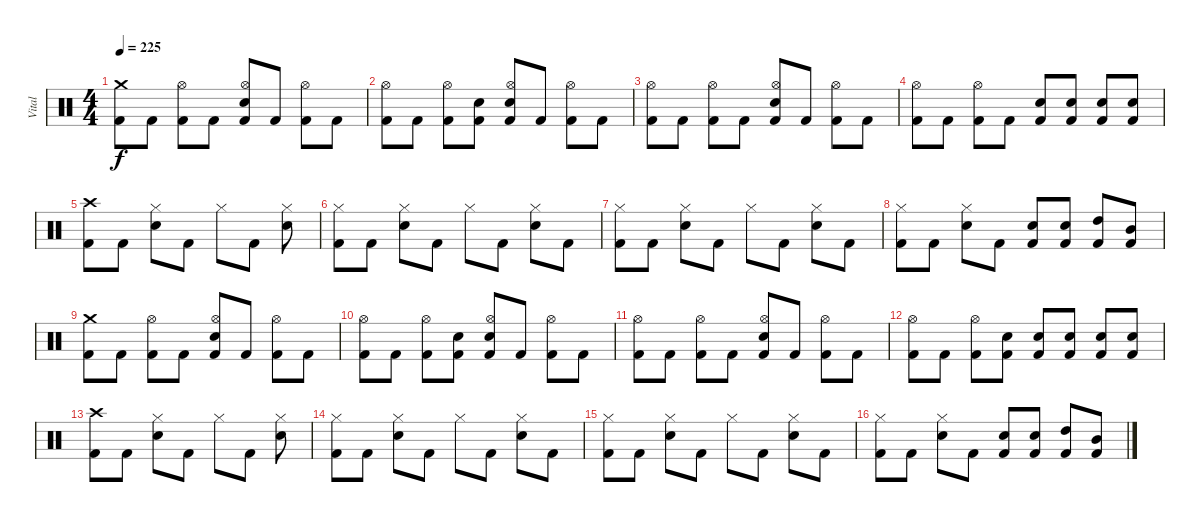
\track ("Vital" "Vital") {instrument percussion}
\staff {score}
\articulation defaults
\ts (4 4)
\tempo 225
\clef neutral
\ks c
("Crash medium (hit)" "Kick (hit) 2").8{dy f} "Kick (hit) 2".8 ("Hi-Hat (open)" "Kick (hit) 2").8 "Kick (hit) 2".8 ("Hi-Hat (open)" "Snare (hit) 2" "Kick (hit) 2").8 "Kick (hit) 2".8 ("Hi-Hat (open)" "Kick (hit) 2").8 "Kick (hit) 2".8 |
("Hi-Hat (open)" "Kick (hit) 2").8 "Kick (hit) 2".8 ("Hi-Hat (open)" "Kick (hit) 2").8 ("Snare (hit) 2" "Kick (hit) 2").8 ("Hi-Hat (open)" "Snare (hit) 2" "Kick (hit) 2").8 "Kick (hit) 2".8 ("Hi-Hat (open)" "Kick (hit) 2").8 "Kick (hit) 2".8 |
("Hi-Hat (open)" "Kick (hit) 2").8 "Kick (hit) 2".8 ("Hi-Hat (open)" "Kick (hit) 2").8 "Kick (hit) 2".8 ("Hi-Hat (open)" "Snare (hit) 2" "Kick (hit) 2").8 "Kick (hit) 2".8 ("Hi-Hat (open)" "Kick (hit) 2").8 "Kick (hit) 2".8 |
("Hi-Hat (open)" "Kick (hit) 2").8 "Kick (hit) 2".8 ("Hi-Hat (open)" "Kick (hit) 2").8 "Kick (hit) 2".8 ("Snare (hit) 2" "Kick (hit) 2").8 ("Snare (hit) 2" "Kick (hit) 2").8 ("Snare (hit) 2" "Kick (hit) 2").8 ("Snare (hit) 2" "Kick (hit) 2").8 |
("Crash high (hit)" "Kick (hit) 2").8 "Kick (hit) 2".8 ("Hi-Hat (closed)" "Snare (hit) 2").8 "Kick (hit) 2".8 "Hi-Hat (closed)".8 "Kick (hit) 2".8 ("Hi-Hat (closed)" "Snare (hit) 2").8 |
("Hi-Hat (closed)" "Kick (hit) 2").8 "Kick (hit) 2".8 ("Hi-Hat (closed)" "Snare (hit) 2").8 "Kick (hit) 2".8 "Hi-Hat (closed)".8 "Kick (hit) 2".8 ("Hi-Hat (closed)" "Snare (hit) 2").8 "Kick (hit) 2".8 |
("Hi-Hat (closed)" "Kick (hit) 2").8 "Kick (hit) 2".8 ("Hi-Hat (closed)" "Snare (hit) 2").8 "Kick (hit) 2".8 "Hi-Hat (closed)".8 "Kick (hit) 2".8 ("Hi-Hat (closed)" "Snare (hit) 2").8 "Kick (hit) 2".8 |
("Hi-Hat (closed)" "Kick (hit) 2").8 "Kick (hit) 2".8 ("Hi-Hat (closed)" "Snare (hit) 2").8 "Kick (hit) 2".8 ("Snare (hit) 2" "Kick (hit) 2").8 ("Snare (hit) 2" "Kick (hit) 2").8 ("High Tom (hit)" "Kick (hit) 2").8 ("Mid Tom (hit)" "Kick (hit) 2").8 |
("Crash medium (hit)" "Kick (hit) 2").8 "Kick (hit) 2".8 ("Hi-Hat (open)" "Kick (hit) 2").8 "Kick (hit) 2".8 ("Hi-Hat (open)" "Snare (hit) 2" "Kick (hit) 2").8 "Kick (hit) 2".8 ("Hi-Hat (open)" "Kick (hit) 2").8 "Kick (hit) 2".8 |
("Hi-Hat (open)" "Kick (hit) 2").8 "Kick (hit) 2".8 ("Hi-Hat (open)" "Kick (hit) 2").8 ("Snare (hit) 2" "Kick (hit) 2").8 ("Hi-Hat (open)" "Snare (hit) 2" "Kick (hit) 2").8 "Kick (hit) 2".8 ("Hi-Hat (open)" "Kick (hit) 2").8 "Kick (hit) 2".8 |
("Hi-Hat (open)" "Kick (hit) 2").8 "Kick (hit) 2".8 ("Hi-Hat (open)" "Kick (hit) 2").8 "Kick (hit) 2".8 ("Hi-Hat (open)" "Snare (hit) 2" "Kick (hit) 2").8 "Kick (hit) 2".8 ("Hi-Hat (open)" "Kick (hit) 2").8 "Kick (hit) 2".8 |
("Hi-Hat (open)" "Kick (hit) 2").8 "Kick (hit) 2".8 ("Hi-Hat (open)" "Kick (hit) 2").8 ("Snare (hit) 2" "Kick (hit) 2").8 ("Snare (hit) 2" "Kick (hit) 2").8 ("Snare (hit) 2" "Kick (hit) 2").8 ("Snare (hit) 2" "Kick (hit) 2").8 ("Snare (hit) 2" "Kick (hit) 2").8 |
("Crash high (hit)" "Kick (hit) 2").8 "Kick (hit) 2".8 ("Hi-Hat (closed)" "Snare (hit) 2").8 "Kick (hit) 2".8 "Hi-Hat (closed)".8 "Kick (hit) 2".8 ("Hi-Hat (closed)" "Snare (hit) 2").8 |
("Hi-Hat (closed)" "Kick (hit) 2").8 "Kick (hit) 2".8 ("Hi-Hat (closed)" "Snare (hit) 2").8 "Kick (hit) 2".8 "Hi-Hat (closed)".8 "Kick (hit) 2".8 ("Hi-Hat (closed)" "Snare (hit) 2").8 "Kick (hit) 2".8 |
("Hi-Hat (closed)" "Kick (hit) 2").8 "Kick (hit) 2".8 ("Hi-Hat (closed)" "Snare (hit) 2").8 "Kick (hit) 2".8 "Hi-Hat (closed)".8 "Kick (hit) 2".8 ("Hi-Hat (closed)" "Snare (hit) 2").8 "Kick (hit) 2".8 |
("Hi-Hat (closed)" "Kick (hit) 2").8 "Kick (hit) 2".8 ("Hi-Hat (closed)" "Snare (hit) 2").8 "Kick (hit) 2".8 ("Snare (hit) 2" "Kick (hit) 2").8 ("Snare (hit) 2" "Kick (hit) 2").8 ("High Tom (hit)" "Kick (hit) 2").8 ("Mid Tom (hit)" "Kick (hit) 2").8
